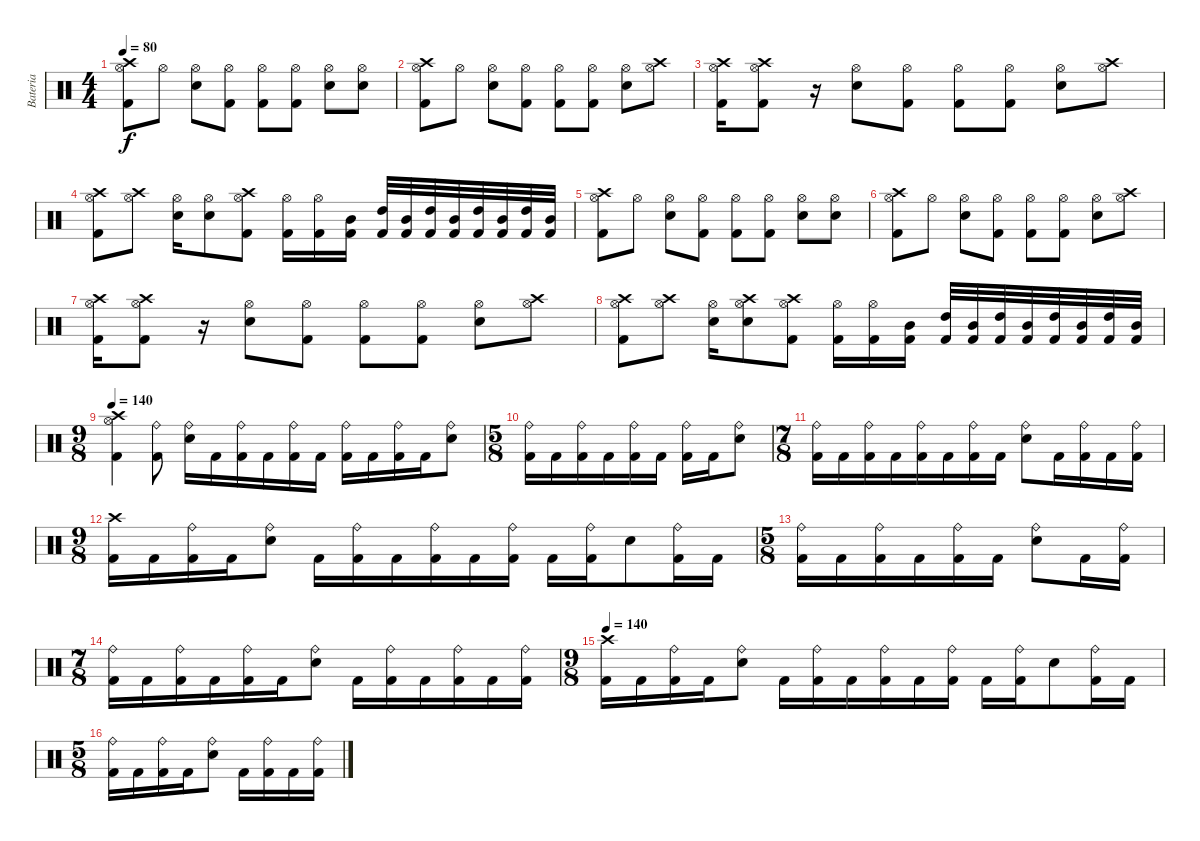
\track ("Bateria" "Bateria") {instrument percussion}
\staff {score}
\articulation defaults
\ts (4 4)
\tempo 80
\clef neutral
\ks c
("Crash high (hit)" "Hi-Hat (open)" "Kick (hit) 2").8{dy f} "Hi-Hat (open)".8 ("Electric Snare (hit)" "Hi-Hat (open)").8 ("Hi-Hat (open)" "Kick (hit) 2").8 ("Hi-Hat (open)" "Kick (hit) 2").8 ("Hi-Hat (open)" "Kick (hit) 2").8 ("Hi-Hat (open)" "Electric Snare (hit)").8 ("Hi-Hat (open)" "Electric Snare (hit)").8 |
("Hi-Hat (open)" "Kick (hit) 2" "Crash high (hit)").8 "Hi-Hat (open)".8 ("Hi-Hat (open)" "Electric Snare (hit)").8 ("Hi-Hat (open)" "Kick (hit) 2").8 ("Hi-Hat (open)" "Kick (hit) 2").8 ("Hi-Hat (open)" "Kick (hit) 2").8 ("Hi-Hat (open)" "Electric Snare (hit)").8 ("Crash high (hit)" "Hi-Hat (open)").8 |
("Crash high (hit)" "Hi-Hat (open)" "Kick (hit) 2").16 ("Crash high (hit)" "Hi-Hat (open)" "Kick (hit) 2").8 r.16 ("Hi-Hat (open)" "Electric Snare (hit)").8 ("Hi-Hat (open)" "Kick (hit) 2").8 ("Hi-Hat (open)" "Kick (hit) 2").8 ("Hi-Hat (open)" "Kick (hit) 2").8 ("Hi-Hat (open)" "Electric Snare (hit)").8 ("Hi-Hat (open)" "Crash high (hit)").8 |
("Crash high (hit)" "Hi-Hat (open)" "Kick (hit) 2").8 ("Crash high (hit)" "Hi-Hat (open)").8 ("Hi-Hat (open)" "Electric Snare (hit)").16 ("Hi-Hat (open)" "Electric Snare (hit)").8 ("Hi-Hat (open)" "Crash high (hit)" "Kick (hit) 2").8 ("Hi-Hat (open)" "Kick (hit) 2").16 ("Hi-Hat (open)" "Kick (hit) 2").16 ("Kick (hit) 2" "Mid Tom (hit)").16 ("Kick (hit) 2" "High Tom (hit)").32 ("Kick (hit) 2" "Mid Tom (hit)").32 ("Kick (hit) 2" "High Tom (hit)").32 ("Kick (hit) 2" "Mid Tom (hit)").32 ("Kick (hit) 2" "High Tom (hit)").32 ("Kick (hit) 2" "Mid Tom (hit)").32 ("Kick (hit) 2" "High Tom (hit)").32 ("Kick (hit) 2" "Mid Tom (hit)").32 |
("Crash high (hit)" "Hi-Hat (open)" "Kick (hit) 2").8 "Hi-Hat (open)".8 ("Electric Snare (hit)" "Hi-Hat (open)").8 ("Hi-Hat (open)" "Kick (hit) 2").8 ("Hi-Hat (open)" "Kick (hit) 2").8 ("Hi-Hat (open)" "Kick (hit) 2").8 ("Hi-Hat (open)" "Electric Snare (hit)").8 ("Hi-Hat (open)" "Electric Snare (hit)").8 |
("Hi-Hat (open)" "Kick (hit) 2" "Crash high (hit)").8 "Hi-Hat (open)".8 ("Hi-Hat (open)" "Electric Snare (hit)").8 ("Hi-Hat (open)" "Kick (hit) 2").8 ("Hi-Hat (open)" "Kick (hit) 2").8 ("Hi-Hat (open)" "Kick (hit) 2").8 ("Hi-Hat (open)" "Electric Snare (hit)").8 ("Crash high (hit)" "Hi-Hat (open)").8 |
("Crash high (hit)" "Hi-Hat (open)" "Kick (hit) 2").16 ("Crash high (hit)" "Hi-Hat (open)" "Kick (hit) 2").8 r.16 ("Hi-Hat (open)" "Electric Snare (hit)").8 ("Hi-Hat (open)" "Kick (hit) 2").8 ("Hi-Hat (open)" "Kick (hit) 2").8 ("Hi-Hat (open)" "Kick (hit) 2").8 ("Hi-Hat (open)" "Electric Snare (hit)").8 ("Hi-Hat (open)" "Crash high (hit)").8 |
("Crash high (hit)" "Hi-Hat (open)" "Kick (hit) 2").8 ("Crash high (hit)" "Hi-Hat (open)").8 ("Hi-Hat (open)" "Electric Snare (hit)").16 ("Crash high (hit)" "Hi-Hat (open)" "Electric Snare (hit)").8 ("Hi-Hat (open)" "Crash high (hit)" "Kick (hit) 2").8 ("Hi-Hat (open)" "Kick (hit) 2").16 ("Hi-Hat (open)" "Kick (hit) 2").16 ("Kick (hit) 2" "Mid Tom (hit)").16 ("Kick (hit) 2" "High Tom (hit)").32 ("Kick (hit) 2" "Mid Tom (hit)").32 ("Kick (hit) 2" "High Tom (hit)").32 ("Kick (hit) 2" "Mid Tom (hit)").32 ("Kick (hit) 2" "High Tom (hit)").32 ("Kick (hit) 2" "Mid Tom (hit)").32 ("Kick (hit) 2" "High Tom (hit)").32 ("Kick (hit) 2" "Mid Tom (hit)").32 |
\ts (9 8)
\tempo 140
("Hi-Hat (open)" "Crash high (hit)" "Kick (hit) 2").4 ("Ride (bell)" "Kick (hit) 2").8 ("Ride (bell)" "Electric Snare (hit)").16 "Kick (hit) 2".16 ("Ride (bell)" "Kick (hit) 2").16 "Kick (hit) 2".16 ("Ride (bell)" "Kick (hit) 2").16 "Kick (hit) 2".16 ("Ride (bell)" "Kick (hit) 2").16 "Kick (hit) 2".16 ("Ride (bell)" "Kick (hit) 2").16 "Kick (hit) 2".16 ("Ride (bell)" "Electric Snare (hit)").8 |
\ts (5 8)
("Ride (bell)" "Kick (hit) 2").16 "Kick (hit) 2".16 ("Ride (bell)" "Kick (hit) 2").16 "Kick (hit) 2".16 ("Ride (bell)" "Kick (hit) 2").16 "Kick (hit) 2".16 ("Ride (bell)" "Kick (hit) 2").16 "Kick (hit) 2".16 ("Ride (bell)" "Electric Snare (hit)").8 |
\ts (7 8)
("Ride (bell)" "Kick (hit) 2").16 "Kick (hit) 2".16 ("Ride (bell)" "Kick (hit) 2").16 "Kick (hit) 2".16 ("Ride (bell)" "Kick (hit) 2").16 "Kick (hit) 2".16 ("Ride (bell)" "Kick (hit) 2").16 "Kick (hit) 2".16 ("Ride (bell)" "Electric Snare (hit)").8 "Kick (hit) 2".16 ("Ride (bell)" "Kick (hit) 2").16 "Kick (hit) 2".16 ("Ride (bell)" "Kick (hit) 2").16 |
\ts (9 8)
("Crash high (hit)" "Kick (hit) 2").16 "Kick (hit) 2".16 ("Ride (bell)" "Kick (hit) 2").16 "Kick (hit) 2".16 ("Ride (bell)" "Electric Snare (hit)").8 "Kick (hit) 2".16 ("Ride (bell)" "Kick (hit) 2").16 "Kick (hit) 2".16 ("Ride (bell)" "Kick (hit) 2").16 "Kick (hit) 2".16 ("Ride (bell)" "Kick (hit) 2").16 "Kick (hit) 2".16 ("Ride (bell)" "Kick (hit) 2").16 "Electric Snare (hit)".8 ("Ride (bell)" "Kick (hit) 2").16 "Kick (hit) 2".16 |
\ts (5 8)
("Ride (bell)" "Kick (hit) 2").16 "Kick (hit) 2".16 ("Ride (bell)" "Kick (hit) 2").16 "Kick (hit) 2".16 ("Ride (bell)" "Kick (hit) 2").16 "Kick (hit) 2".16 ("Ride (bell)" "Electric Snare (hit)").8 "Kick (hit) 2".16 ("Ride (bell)" "Kick (hit) 2").16 |
\ts (7 8)
("Ride (bell)" "Kick (hit) 2").16 "Kick (hit) 2".16 ("Ride (bell)" "Kick (hit) 2").16 "Kick (hit) 2".16 ("Ride (bell)" "Kick (hit) 2").16 "Kick (hit) 2".16 ("Ride (bell)" "Electric Snare (hit)").8 "Kick (hit) 2".16 ("Ride (bell)" "Kick (hit) 2").16 "Kick (hit) 2".16 ("Ride (bell)" "Kick (hit) 2").16 "Kick (hit) 2".16 ("Ride (bell)" "Kick (hit) 2").16 |
\ts (9 8)
\tempo 140
("Crash high (hit)" "Kick (hit) 2").16 "Kick (hit) 2".16 ("Ride (bell)" "Kick (hit) 2").16 "Kick (hit) 2".16 ("Ride (bell)" "Electric Snare (hit)").8 "Kick (hit) 2".16 ("Ride (bell)" "Kick (hit) 2").16 "Kick (hit) 2".16 ("Ride (bell)" "Kick (hit) 2").16 "Kick (hit) 2".16 ("Ride (bell)" "Kick (hit) 2").16 "Kick (hit) 2".16 ("Ride (bell)" "Kick (hit) 2").16 "Electric Snare (hit)".8 ("Ride (bell)" "Kick (hit) 2").16 "Kick (hit) 2".16 |
\ts (5 8)
("Ride (bell)" "Kick (hit) 2").16 "Kick (hit) 2".16 ("Ride (bell)" "Kick (hit) 2").16 "Kick (hit) 2".16 ("Ride (bell)" "Electric Snare (hit)").8 "Kick (hit) 2".16 ("Ride (bell)" "Kick (hit) 2").16 "Kick (hit) 2".16 ("Ride (bell)" "Kick (hit) 2").16
